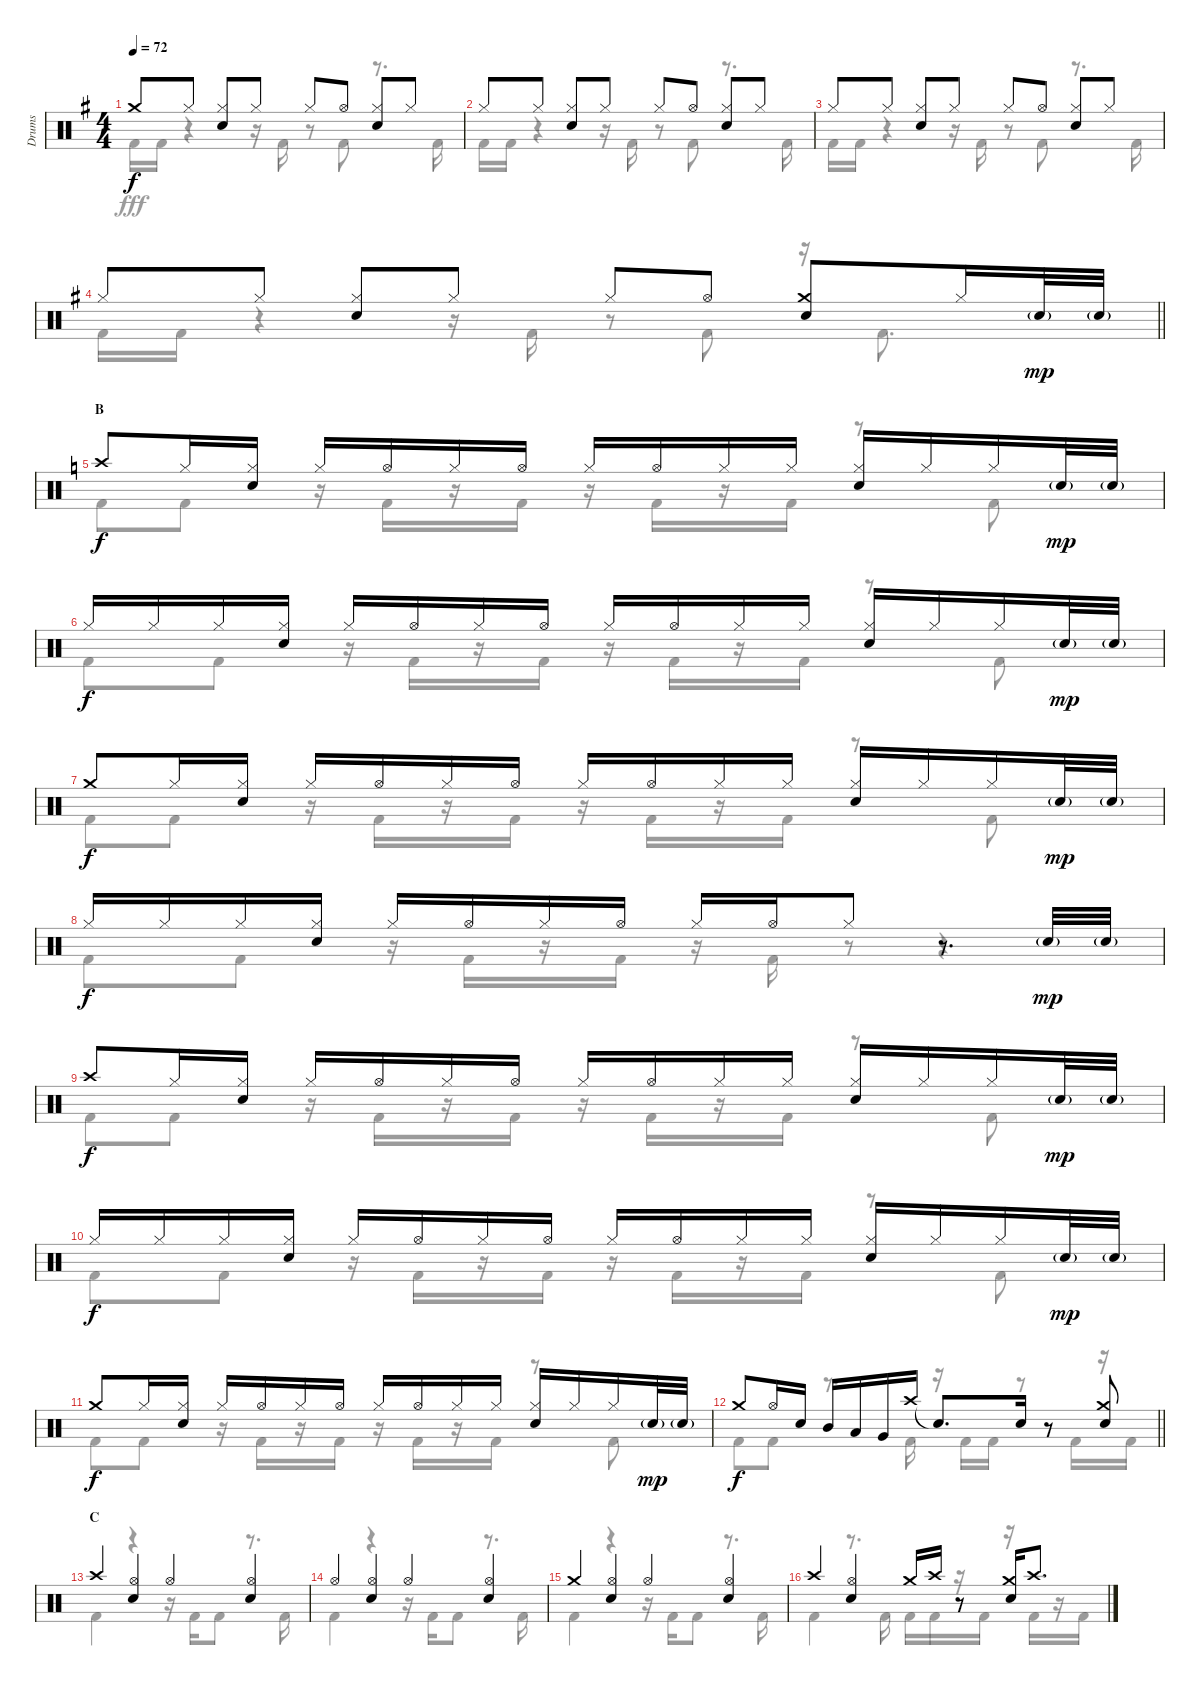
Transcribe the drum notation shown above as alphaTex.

\track ("Drums" "Drums") {instrument percussion}
\staff {score}
\articulation defaults
\voice
\ts (4 4)
\tempo 72
\clef neutral
\ks g "Crash medium (hit)".8{dy f} "Hi-Hat (closed)".8
("Hi-Hat (closed)" "Snare (hit) 2").8 "Hi-Hat (closed)".8 "Hi-Hat (closed)".8 "Hi-Hat (open)".8 ("Hi-Hat (closed)" "Snare (hit) 2").8 "Hi-Hat (closed)".8 |
"Hi-Hat (closed)".8 "Hi-Hat (closed)".8 ("Hi-Hat (closed)" "Snare (hit) 2").8 "Hi-Hat (closed)".8 "Hi-Hat (closed)".8 "Hi-Hat (open)".8 ("Hi-Hat (closed)" "Snare (hit) 2").8 "Hi-Hat (closed)".8 |
"Hi-Hat (closed)".8 "Hi-Hat (closed)".8 ("Hi-Hat (closed)" "Snare (hit) 2").8 "Hi-Hat (closed)".8 "Hi-Hat (closed)".8 "Hi-Hat (open)".8 ("Hi-Hat (closed)" "Snare (hit) 2").8 "Hi-Hat (closed)".8 |
\barLineRight lightlight "Hi-Hat (closed)".8 "Hi-Hat (closed)".8
("Hi-Hat (closed)" "Snare (hit) 2").8 "Hi-Hat (closed)".8 "Hi-Hat (closed)".8 "Hi-Hat (open)".8 ("Crash medium (hit)" "Snare (hit) 2").8 "Hi-Hat (closed)".16 "Snare (hit) 2"{g}.32{dy mp} "Snare (hit) 2"{g}.32 |
\section ("" "B")
\ks aminor "Crash high (hit)".8{dy f} "Hi-Hat (closed)".16
("Hi-Hat (closed)" "Snare (hit) 2").16 "Hi-Hat (closed)".16 "Hi-Hat (open)".16 "Hi-Hat (closed)".16 "Hi-Hat (open)".16 "Hi-Hat (closed)".16 "Hi-Hat (open)".16 "Hi-Hat (closed)".16 "Hi-Hat (closed)".16 ("Hi-Hat (closed)" "Snare (hit) 2").16 "Hi-Hat (closed)".16 "Hi-Hat (closed)".16 "Snare (hit) 2"{g}.32{dy mp} "Snare (hit) 2"{g}.32 |
"Hi-Hat (closed)".16{dy f} "Hi-Hat (closed)".16 "Hi-Hat (closed)".16 ("Hi-Hat (closed)" "Snare (hit) 2").16 "Hi-Hat (closed)".16 "Hi-Hat (open)".16 "Hi-Hat (closed)".16 "Hi-Hat (open)".16 "Hi-Hat (closed)".16 "Hi-Hat (open)".16 "Hi-Hat (closed)".16 "Hi-Hat (closed)".16 ("Hi-Hat (closed)" "Snare (hit) 2").16 "Hi-Hat (closed)".16 "Hi-Hat (closed)".16 "Snare (hit) 2"{g}.32{dy mp} "Snare (hit) 2"{g}.32 |
"Crash medium (hit)".8{dy f} "Hi-Hat (closed)".16 ("Hi-Hat (closed)" "Snare (hit) 2").16 "Hi-Hat (closed)".16 "Hi-Hat (open)".16 "Hi-Hat (closed)".16 "Hi-Hat (open)".16 "Hi-Hat (closed)".16 "Hi-Hat (open)".16 "Hi-Hat (closed)".16 "Hi-Hat (closed)".16 ("Hi-Hat (closed)" "Snare (hit) 2").16 "Hi-Hat (closed)".16 "Hi-Hat (closed)".16 "Snare (hit) 2"{g}.32{dy mp} "Snare (hit) 2"{g}.32 |
"Hi-Hat (closed)".16{dy f} "Hi-Hat (closed)".16 "Hi-Hat (closed)".16 ("Hi-Hat (closed)" "Snare (hit) 2").16 "Hi-Hat (closed)".16 "Hi-Hat (open)".16 "Hi-Hat (closed)".16 "Hi-Hat (open)".16 "Hi-Hat (closed)".16 "Hi-Hat (open)".16 "Hi-Hat (closed)".8 r.8{d} "Snare (hit) 2"{g}.32{dy mp} "Snare (hit) 2"{g}.32 |
"Crash high (hit)".8{dy f} "Hi-Hat (closed)".16 ("Hi-Hat (closed)" "Snare (hit) 2").16 "Hi-Hat (closed)".16 "Hi-Hat (open)".16 "Hi-Hat (closed)".16 "Hi-Hat (open)".16 "Hi-Hat (closed)".16 "Hi-Hat (open)".16 "Hi-Hat (closed)".16 "Hi-Hat (closed)".16 ("Hi-Hat (closed)" "Snare (hit) 2").16 "Hi-Hat (closed)".16 "Hi-Hat (closed)".16 "Snare (hit) 2"{g}.32{dy mp} "Snare (hit) 2"{g}.32 |
"Hi-Hat (closed)".16{dy f} "Hi-Hat (closed)".16 "Hi-Hat (closed)".16 ("Hi-Hat (closed)" "Snare (hit) 2").16 "Hi-Hat (closed)".16 "Hi-Hat (open)".16 "Hi-Hat (closed)".16 "Hi-Hat (open)".16 "Hi-Hat (closed)".16 "Hi-Hat (open)".16 "Hi-Hat (closed)".16 "Hi-Hat (closed)".16 ("Hi-Hat (closed)" "Snare (hit) 2").16 "Hi-Hat (closed)".16 "Hi-Hat (closed)".16 "Snare (hit) 2"{g}.32{dy mp} "Snare (hit) 2"{g}.32 |
"Crash medium (hit)".8{dy f} "Hi-Hat (closed)".16 ("Hi-Hat (closed)" "Snare (hit) 2").16 "Hi-Hat (closed)".16 "Hi-Hat (open)".16 "Hi-Hat (closed)".16 "Hi-Hat (open)".16 "Hi-Hat (closed)".16 "Hi-Hat (open)".16 "Hi-Hat (closed)".16 "Hi-Hat (closed)".16 ("Hi-Hat (closed)" "Snare (hit) 2").16 "Hi-Hat (closed)".16 "Hi-Hat (closed)".16 "Snare (hit) 2"{g}.32{dy mp} "Snare (hit) 2"{g}.32 |
\barLineRight lightlight "Crash medium (hit)".8{dy f} "Hi-Hat (open)".16 "Snare (hit) 2".16 "Mid Tom (hit)".16 "Low Tom (hit)".16 "Very Low Tom (hit)".16 "Crash high (hit)".16 "Snare (hit)"{t}.8{d} "Snare (hit) 2".16
r.8 ("Crash medium (hit)" "Snare (hit) 2").8 |
\section ("" "C")
"Crash high (hit)".4 ("Hi-Hat (open)" "Snare (hit) 2").4 "Hi-Hat (open)".4 ("Hi-Hat (open)" "Snare (hit) 2").4 |
"Hi-Hat (open)".4 ("Hi-Hat (open)" "Snare (hit) 2").4 "Hi-Hat (open)".4 ("Hi-Hat (open)" "Snare (hit) 2").4 |
"Crash medium (hit)".4 ("Hi-Hat (open)" "Snare (hit) 2").4 "Hi-Hat (open)".4 ("Hi-Hat (open)" "Snare (hit) 2").4 |
"Crash high (hit)".4 ("Hi-Hat (open)" "Snare (hit) 2").4 "Crash medium (hit)".16 "Crash high (hit)".16 r.8 ("Crash medium (hit)" "Snare (hit) 2").16 "Crash high (hit)".8{d}
\voice
\clef neutral
\ottava regular
\simile none
\ks g "Kick (hit) 2".16{dy fff} "Kick (hit) 2".16
r.4 r.16 "Kick (hit) 2".16 r.8 "Kick (hit) 2".8 r.8{d} "Kick (hit) 2".16 |
"Kick (hit) 2".16 "Kick (hit) 2".16 r.4 r.16 "Kick (hit) 2".16 r.8 "Kick (hit) 2".8 r.8{d} "Kick (hit) 2".16 |
"Kick (hit) 2".16 "Kick (hit) 2".16 r.4 r.16 "Kick (hit) 2".16 r.8 "Kick (hit) 2".8 r.8{d} "Kick (hit) 2".16 |
\barLineRight lightlight "Kick (hit) 2".16 "Kick (hit) 2".16
r.4 r.16 "Kick (hit) 2".16 r.8 "Kick (hit) 2".8 r.16 "Kick (hit) 2".8{d} |
\ks aminor "Kick (hit) 2".8 "Kick (hit) 2".8
r.16 "Kick (hit) 2".16 r.16 "Kick (hit) 2".16 r.16 "Kick (hit) 2".16 r.16 "Kick (hit) 2".16 r.8 "Kick (hit) 2".8 |
"Kick (hit) 2".8 "Kick (hit) 2".8 r.16 "Kick (hit) 2".16 r.16 "Kick (hit) 2".16 r.16 "Kick (hit) 2".16 r.16 "Kick (hit) 2".16 r.8 "Kick (hit) 2".8 |
"Kick (hit) 2".8 "Kick (hit) 2".8 r.16 "Kick (hit) 2".16 r.16 "Kick (hit) 2".16 r.16 "Kick (hit) 2".16 r.16 "Kick (hit) 2".16 r.8 "Kick (hit) 2".8 |
"Kick (hit) 2".8 "Kick (hit) 2".8 r.16 "Kick (hit) 2".16 r.16 "Kick (hit) 2".16 r.16 "Kick (hit) 2".16 r.8 r.4 |
"Kick (hit) 2".8 "Kick (hit) 2".8 r.16 "Kick (hit) 2".16 r.16 "Kick (hit) 2".16 r.16 "Kick (hit) 2".16 r.16 "Kick (hit) 2".16 r.8 "Kick (hit) 2".8 |
"Kick (hit) 2".8 "Kick (hit) 2".8 r.16 "Kick (hit) 2".16 r.16 "Kick (hit) 2".16 r.16 "Kick (hit) 2".16 r.16 "Kick (hit) 2".16 r.8 "Kick (hit) 2".8 |
"Kick (hit) 2".8 "Kick (hit) 2".8 r.16 "Kick (hit) 2".16 r.16 "Kick (hit) 2".16 r.16 "Kick (hit) 2".16 r.16 "Kick (hit) 2".16 r.8 "Kick (hit) 2".8 |
\barLineRight lightlight "Kick (hit) 2".8 "Kick (hit) 2".8
r.8{d} "Kick (hit) 2".16 r.16 "Kick (hit) 2".16 "Kick (hit) 2".16 r.8 "Kick (hit) 2".16 r.16 "Kick (hit) 2".16 |
"Kick (hit) 2".4 r.4 r.16 "Kick (hit) 2".16 "Kick (hit) 2".8 r.8{d} "Kick (hit) 2".16 |
"Kick (hit) 2".4 r.4 r.16 "Kick (hit) 2".16 "Kick (hit) 2".8 r.8{d} "Kick (hit) 2".16 |
"Kick (hit) 2".4 r.4 r.16 "Kick (hit) 2".16 "Kick (hit) 2".8 r.8{d} "Kick (hit) 2".16 |
"Kick (hit) 2".4 r.8{d} "Kick (hit) 2".16 "Kick (hit) 2".16 "Kick (hit) 2".16 r.16 "Kick (hit) 2".16 r.16 "Kick (hit) 2".16 r.16 "Kick (hit) 2".16
